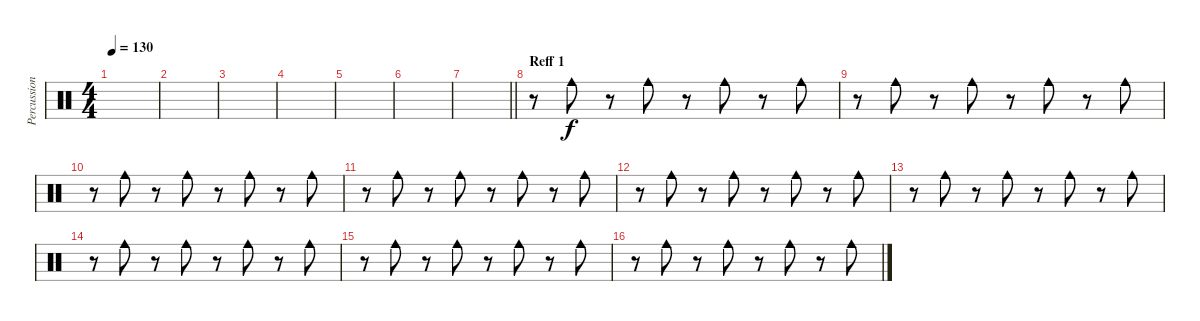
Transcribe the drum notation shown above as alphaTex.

\track ("Percussion 2" "Percussion") {instrument percussion}
\staff {score}
\articulation defaults
\ts (4 4)
\tempo 130
\clef neutral
\ks c
|
|
|
|
|
|
\barLineRight lightlight
|
\section ("" "Reff 1")
r.8 "Cowbell medium (hit)".8 r.8 "Cowbell medium (hit)".8 r.8 "Cowbell medium (hit)".8 r.8 "Cowbell medium (hit)".8 |
r.8 "Cowbell medium (hit)".8 r.8 "Cowbell medium (hit)".8 r.8 "Cowbell medium (hit)".8 r.8 "Cowbell medium (hit)".8 |
r.8 "Cowbell medium (hit)".8 r.8 "Cowbell medium (hit)".8 r.8 "Cowbell medium (hit)".8 r.8 "Cowbell medium (hit)".8 |
r.8 "Cowbell medium (hit)".8 r.8 "Cowbell medium (hit)".8 r.8 "Cowbell medium (hit)".8 r.8 "Cowbell medium (hit)".8 |
r.8 "Cowbell medium (hit)".8 r.8 "Cowbell medium (hit)".8 r.8 "Cowbell medium (hit)".8 r.8 "Cowbell medium (hit)".8 |
r.8 "Cowbell medium (hit)".8 r.8 "Cowbell medium (hit)".8 r.8 "Cowbell medium (hit)".8 r.8 "Cowbell medium (hit)".8 |
r.8 "Cowbell medium (hit)".8 r.8 "Cowbell medium (hit)".8 r.8 "Cowbell medium (hit)".8 r.8 "Cowbell medium (hit)".8 |
r.8 "Cowbell medium (hit)".8 r.8 "Cowbell medium (hit)".8 r.8 "Cowbell medium (hit)".8 r.8 "Cowbell medium (hit)".8 |
r.8 "Cowbell medium (hit)".8 r.8 "Cowbell medium (hit)".8 r.8 "Cowbell medium (hit)".8 r.8 "Cowbell medium (hit)".8
